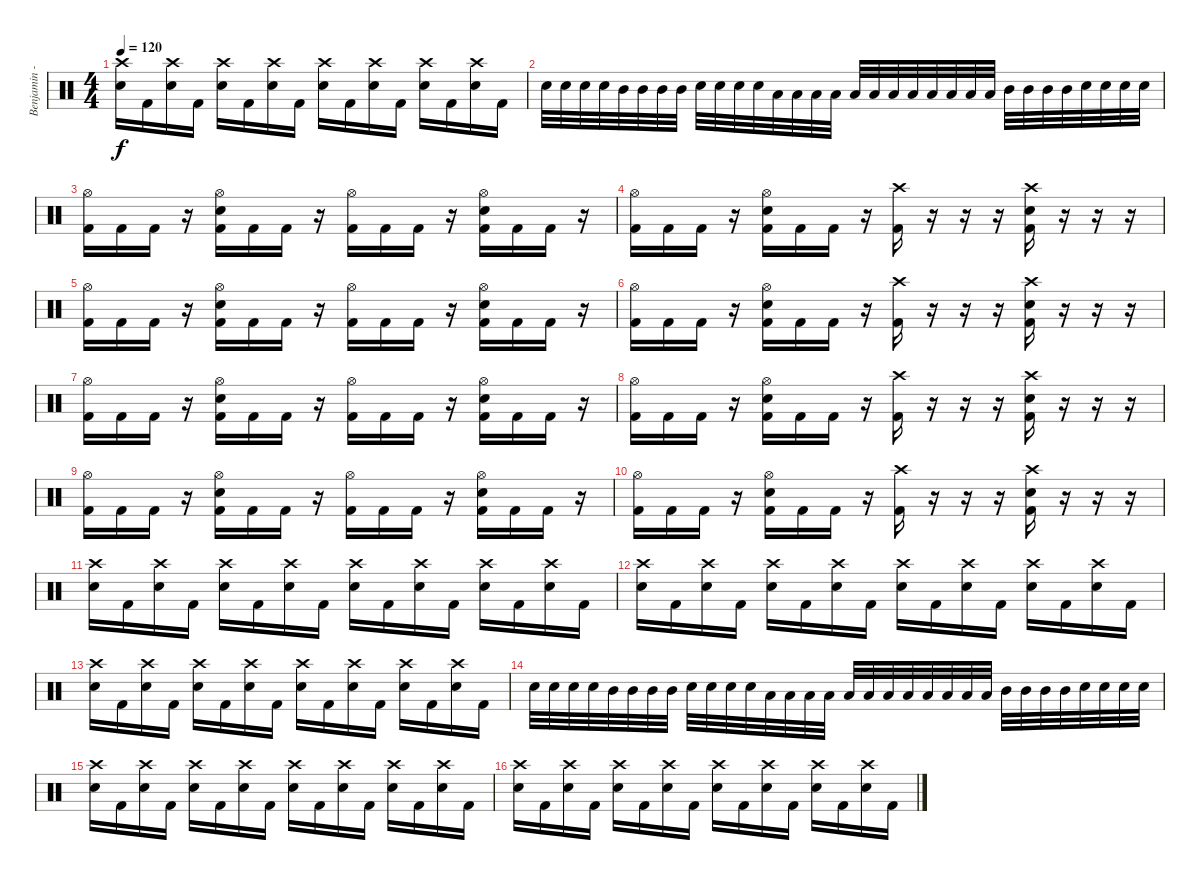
\track ("Benjamin - Drums" "Benjamin -") {instrument percussion}
\staff {score}
\articulation defaults
\ts (4 4)
\tempo 120
\clef neutral
\ks c
("Crash high (hit)" "Snare (hit) 2").16{dy f} "Kick (hit) 2".16 ("Crash high (hit)" "Snare (hit) 2").16 "Kick (hit) 2".16 ("Crash high (hit)" "Snare (hit) 2").16 "Kick (hit) 2".16 ("Crash high (hit)" "Snare (hit) 2").16 "Kick (hit) 2".16 ("Crash high (hit)" "Snare (hit) 2").16 "Kick (hit) 2".16 ("Crash high (hit)" "Snare (hit) 2").16 "Kick (hit) 2".16 ("Crash high (hit)" "Snare (hit) 2").16 "Kick (hit) 2".16 ("Crash high (hit)" "Snare (hit) 2").16 "Kick (hit) 2".16 |
"Snare (hit) 2".32 "Snare (hit) 2".32 "Snare (hit) 2".32 "Snare (hit) 2".32 "Mid Tom (hit)".32 "Mid Tom (hit)".32 "Mid Tom (hit)".32 "Mid Tom (hit)".32 "Snare (hit) 2".32 "Snare (hit) 2".32 "Snare (hit) 2".32 "Snare (hit) 2".32 "Low Tom (hit)".32 "Low Tom (hit)".32 "Low Tom (hit)".32 "Low Tom (hit)".32 "Low Floor Tom (hit)".32 "Low Floor Tom (hit)".32 "Low Floor Tom (hit)".32 "Low Floor Tom (hit)".32 "Low Tom (hit)".32 "Low Tom (hit)".32 "Low Tom (hit)".32 "Low Tom (hit)".32 "Mid Tom (hit)".32 "Mid Tom (hit)".32 "Mid Tom (hit)".32 "Mid Tom (hit)".32 "Snare (hit) 2".32 "Snare (hit) 2".32 "Snare (hit) 2".32 "Snare (hit) 2".32 |
("Hi-Hat (open)" "Kick (hit) 2").16 "Kick (hit) 2".16 "Kick (hit) 2".16 r.16 ("Hi-Hat (open)" "Snare (hit) 2" "Kick (hit) 2").16 "Kick (hit) 2".16 "Kick (hit) 2".16 r.16 ("Hi-Hat (open)" "Kick (hit) 2").16 "Kick (hit) 2".16 "Kick (hit) 2".16 r.16 ("Hi-Hat (open)" "Snare (hit) 2" "Kick (hit) 2").16 "Kick (hit) 2".16 "Kick (hit) 2".16 r.16 |
("Hi-Hat (open)" "Kick (hit) 2").16 "Kick (hit) 2".16 "Kick (hit) 2".16 r.16 ("Hi-Hat (open)" "Snare (hit) 2" "Kick (hit) 2").16 "Kick (hit) 2".16 "Kick (hit) 2".16 r.16 ("Crash high (hit)" "Kick (hit) 2").16 r.16 r.16 r.16 ("Crash high (hit)" "Snare (hit) 2" "Kick (hit) 2").16 r.16 r.16 r.16 |
("Hi-Hat (open)" "Kick (hit) 2").16 "Kick (hit) 2".16 "Kick (hit) 2".16 r.16 ("Hi-Hat (open)" "Snare (hit) 2" "Kick (hit) 2").16 "Kick (hit) 2".16 "Kick (hit) 2".16 r.16 ("Hi-Hat (open)" "Kick (hit) 2").16 "Kick (hit) 2".16 "Kick (hit) 2".16 r.16 ("Hi-Hat (open)" "Snare (hit) 2" "Kick (hit) 2").16 "Kick (hit) 2".16 "Kick (hit) 2".16 r.16 |
("Hi-Hat (open)" "Kick (hit) 2").16 "Kick (hit) 2".16 "Kick (hit) 2".16 r.16 ("Hi-Hat (open)" "Snare (hit) 2" "Kick (hit) 2").16 "Kick (hit) 2".16 "Kick (hit) 2".16 r.16 ("Crash high (hit)" "Kick (hit) 2").16 r.16 r.16 r.16 ("Crash high (hit)" "Snare (hit) 2" "Kick (hit) 2").16 r.16 r.16 r.16 |
("Hi-Hat (open)" "Kick (hit) 2").16 "Kick (hit) 2".16 "Kick (hit) 2".16 r.16 ("Hi-Hat (open)" "Snare (hit) 2" "Kick (hit) 2").16 "Kick (hit) 2".16 "Kick (hit) 2".16 r.16 ("Hi-Hat (open)" "Kick (hit) 2").16 "Kick (hit) 2".16 "Kick (hit) 2".16 r.16 ("Hi-Hat (open)" "Snare (hit) 2" "Kick (hit) 2").16 "Kick (hit) 2".16 "Kick (hit) 2".16 r.16 |
("Hi-Hat (open)" "Kick (hit) 2").16 "Kick (hit) 2".16 "Kick (hit) 2".16 r.16 ("Hi-Hat (open)" "Snare (hit) 2" "Kick (hit) 2").16 "Kick (hit) 2".16 "Kick (hit) 2".16 r.16 ("Crash high (hit)" "Kick (hit) 2").16 r.16 r.16 r.16 ("Crash high (hit)" "Snare (hit) 2" "Kick (hit) 2").16 r.16 r.16 r.16 |
("Hi-Hat (open)" "Kick (hit) 2").16 "Kick (hit) 2".16 "Kick (hit) 2".16 r.16 ("Hi-Hat (open)" "Snare (hit) 2" "Kick (hit) 2").16 "Kick (hit) 2".16 "Kick (hit) 2".16 r.16 ("Hi-Hat (open)" "Kick (hit) 2").16 "Kick (hit) 2".16 "Kick (hit) 2".16 r.16 ("Hi-Hat (open)" "Snare (hit) 2" "Kick (hit) 2").16 "Kick (hit) 2".16 "Kick (hit) 2".16 r.16 |
("Hi-Hat (open)" "Kick (hit) 2").16 "Kick (hit) 2".16 "Kick (hit) 2".16 r.16 ("Hi-Hat (open)" "Snare (hit) 2" "Kick (hit) 2").16 "Kick (hit) 2".16 "Kick (hit) 2".16 r.16 ("Crash high (hit)" "Kick (hit) 2").16 r.16 r.16 r.16 ("Crash high (hit)" "Snare (hit) 2" "Kick (hit) 2").16 r.16 r.16 r.16 |
("Crash high (hit)" "Snare (hit) 2").16 "Kick (hit) 2".16 ("Crash high (hit)" "Snare (hit) 2").16 "Kick (hit) 2".16 ("Crash high (hit)" "Snare (hit) 2").16 "Kick (hit) 2".16 ("Crash high (hit)" "Snare (hit) 2").16 "Kick (hit) 2".16 ("Crash high (hit)" "Snare (hit) 2").16 "Kick (hit) 2".16 ("Crash high (hit)" "Snare (hit) 2").16 "Kick (hit) 2".16 ("Crash high (hit)" "Snare (hit) 2").16 "Kick (hit) 2".16 ("Crash high (hit)" "Snare (hit) 2").16 "Kick (hit) 2".16 |
("Crash high (hit)" "Snare (hit) 2").16 "Kick (hit) 2".16 ("Crash high (hit)" "Snare (hit) 2").16 "Kick (hit) 2".16 ("Crash high (hit)" "Snare (hit) 2").16 "Kick (hit) 2".16 ("Crash high (hit)" "Snare (hit) 2").16 "Kick (hit) 2".16 ("Crash high (hit)" "Snare (hit) 2").16 "Kick (hit) 2".16 ("Crash high (hit)" "Snare (hit) 2").16 "Kick (hit) 2".16 ("Crash high (hit)" "Snare (hit) 2").16 "Kick (hit) 2".16 ("Crash high (hit)" "Snare (hit) 2").16 "Kick (hit) 2".16 |
("Crash high (hit)" "Snare (hit) 2").16 "Kick (hit) 2".16 ("Crash high (hit)" "Snare (hit) 2").16 "Kick (hit) 2".16 ("Crash high (hit)" "Snare (hit) 2").16 "Kick (hit) 2".16 ("Crash high (hit)" "Snare (hit) 2").16 "Kick (hit) 2".16 ("Crash high (hit)" "Snare (hit) 2").16 "Kick (hit) 2".16 ("Crash high (hit)" "Snare (hit) 2").16 "Kick (hit) 2".16 ("Crash high (hit)" "Snare (hit) 2").16 "Kick (hit) 2".16 ("Crash high (hit)" "Snare (hit) 2").16 "Kick (hit) 2".16 |
"Snare (hit) 2".32 "Snare (hit) 2".32 "Snare (hit) 2".32 "Snare (hit) 2".32 "Mid Tom (hit)".32 "Mid Tom (hit)".32 "Mid Tom (hit)".32 "Mid Tom (hit)".32 "Snare (hit) 2".32 "Snare (hit) 2".32 "Snare (hit) 2".32 "Snare (hit) 2".32 "Low Tom (hit)".32 "Low Tom (hit)".32 "Low Tom (hit)".32 "Low Tom (hit)".32 "Low Floor Tom (hit)".32 "Low Floor Tom (hit)".32 "Low Floor Tom (hit)".32 "Low Floor Tom (hit)".32 "Low Tom (hit)".32 "Low Tom (hit)".32 "Low Tom (hit)".32 "Low Tom (hit)".32 "Mid Tom (hit)".32 "Mid Tom (hit)".32 "Mid Tom (hit)".32 "Mid Tom (hit)".32 "Snare (hit) 2".32 "Snare (hit) 2".32 "Snare (hit) 2".32 "Snare (hit) 2".32 |
("Crash high (hit)" "Snare (hit) 2").16 "Kick (hit) 2".16 ("Crash high (hit)" "Snare (hit) 2").16 "Kick (hit) 2".16 ("Crash high (hit)" "Snare (hit) 2").16 "Kick (hit) 2".16 ("Crash high (hit)" "Snare (hit) 2").16 "Kick (hit) 2".16 ("Crash high (hit)" "Snare (hit) 2").16 "Kick (hit) 2".16 ("Crash high (hit)" "Snare (hit) 2").16 "Kick (hit) 2".16 ("Crash high (hit)" "Snare (hit) 2").16 "Kick (hit) 2".16 ("Crash high (hit)" "Snare (hit) 2").16 "Kick (hit) 2".16 |
("Crash high (hit)" "Snare (hit) 2").16 "Kick (hit) 2".16 ("Crash high (hit)" "Snare (hit) 2").16 "Kick (hit) 2".16 ("Crash high (hit)" "Snare (hit) 2").16 "Kick (hit) 2".16 ("Crash high (hit)" "Snare (hit) 2").16 "Kick (hit) 2".16 ("Crash high (hit)" "Snare (hit) 2").16 "Kick (hit) 2".16 ("Crash high (hit)" "Snare (hit) 2").16 "Kick (hit) 2".16 ("Crash high (hit)" "Snare (hit) 2").16 "Kick (hit) 2".16 ("Crash high (hit)" "Snare (hit) 2").16 "Kick (hit) 2".16
